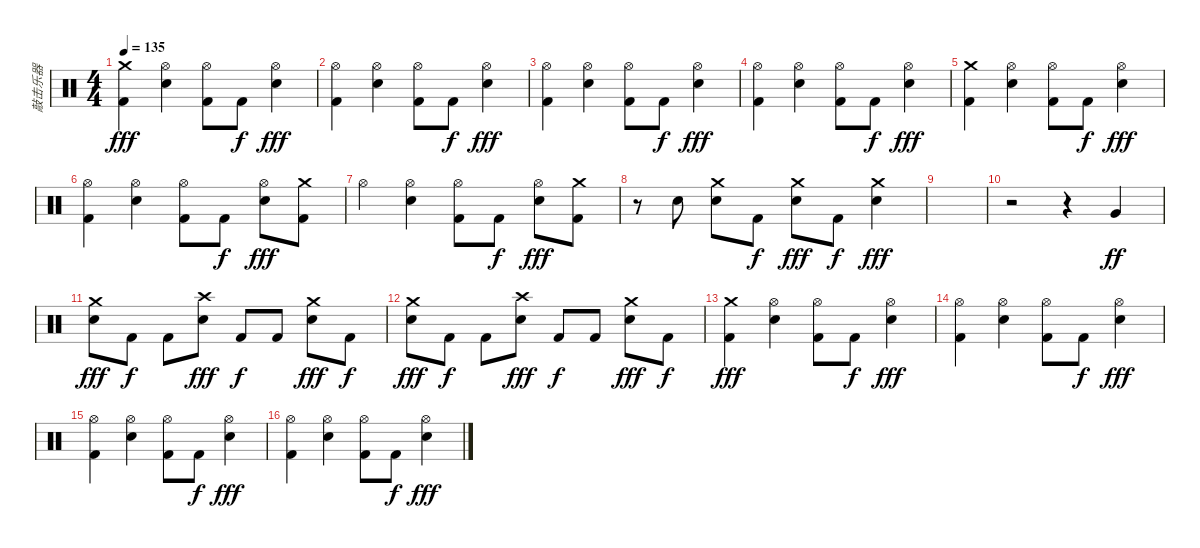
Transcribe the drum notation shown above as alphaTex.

\track ("敲击乐器" "敲击乐器") {instrument percussion}
\staff {score}
\articulation defaults
\ts (4 4)
\tempo 135
\clef neutral
\ks c
("Crash medium (hit)" "Kick (hit) 2").4{dy fff} ("Hi-Hat (open)" "Electric Snare (hit)").4 ("Hi-Hat (open)" "Kick (hit) 2").8 "Kick (hit) 2".8{dy f} ("Hi-Hat (open)" "Electric Snare (hit)").4{dy fff} |
("Hi-Hat (open)" "Kick (hit) 2").4 ("Hi-Hat (open)" "Electric Snare (hit)").4 ("Hi-Hat (open)" "Kick (hit) 2").8 "Kick (hit) 2".8{dy f} ("Hi-Hat (open)" "Electric Snare (hit)").4{dy fff} |
("Hi-Hat (open)" "Kick (hit) 2").4 ("Hi-Hat (open)" "Electric Snare (hit)").4 ("Hi-Hat (open)" "Kick (hit) 2").8 "Kick (hit) 2".8{dy f} ("Hi-Hat (open)" "Electric Snare (hit)").4{dy fff} |
("Hi-Hat (open)" "Kick (hit) 2").4 ("Hi-Hat (open)" "Electric Snare (hit)").4 ("Hi-Hat (open)" "Kick (hit) 2").8 "Kick (hit) 2".8{dy f} ("Hi-Hat (open)" "Electric Snare (hit)").4{dy fff} |
("Crash medium (hit)" "Kick (hit) 2").4 ("Hi-Hat (open)" "Electric Snare (hit)").4 ("Hi-Hat (open)" "Kick (hit) 2").8 "Kick (hit) 2".8{dy f} ("Hi-Hat (open)" "Electric Snare (hit)").4{dy fff} |
("Hi-Hat (open)" "Kick (hit) 2").4 ("Hi-Hat (open)" "Electric Snare (hit)").4 ("Hi-Hat (open)" "Kick (hit) 2").8 "Kick (hit) 2".8{dy f} ("Hi-Hat (open)" "Electric Snare (hit)").8{dy fff} ("Crash medium (hit)" "Kick (hit) 2").8 |
"Hi-Hat (open)".4 ("Hi-Hat (open)" "Electric Snare (hit)").4 ("Hi-Hat (open)" "Kick (hit) 2").8 "Kick (hit) 2".8{dy f} ("Electric Snare (hit)" "Hi-Hat (open)").8{dy fff} ("Crash medium (hit)" "Kick (hit) 2").8 |
r.8 "Electric Snare (hit)".8 ("Electric Snare (hit)" "Crash medium (hit)").8 "Kick (hit) 2".8{dy f} ("Electric Snare (hit)" "Crash medium (hit)").8{dy fff} "Kick (hit) 2".8{dy f} ("Electric Snare (hit)" "Crash medium (hit)").4{dy fff} |
|
r.2 r.4 "Very Low Tom (hit)".4{dy ff} |
("Crash medium (hit)" "Electric Snare (hit)").8{dy fff} "Kick (hit) 2".8{dy f} "Kick (hit) 2".8 ("Electric Snare (hit)" "Crash high (hit)").8{dy fff} "Kick (hit) 2".8{dy f} "Kick (hit) 2".8 ("Electric Snare (hit)" "Crash medium (hit)").8{dy fff} "Kick (hit) 2".8{dy f} |
("Crash medium (hit)" "Electric Snare (hit)").8{dy fff} "Kick (hit) 2".8{dy f} "Kick (hit) 2".8 ("Electric Snare (hit)" "Crash high (hit)").8{dy fff} "Kick (hit) 2".8{dy f} "Kick (hit) 2".8 ("Electric Snare (hit)" "Crash medium (hit)").8{dy fff} "Kick (hit) 2".8{dy f} |
("Crash medium (hit)" "Kick (hit) 2").4{dy fff} ("Hi-Hat (open)" "Electric Snare (hit)").4 ("Hi-Hat (open)" "Kick (hit) 2").8 "Kick (hit) 2".8{dy f} ("Hi-Hat (open)" "Electric Snare (hit)").4{dy fff} |
("Hi-Hat (open)" "Kick (hit) 2").4 ("Hi-Hat (open)" "Electric Snare (hit)").4 ("Hi-Hat (open)" "Kick (hit) 2").8 "Kick (hit) 2".8{dy f} ("Hi-Hat (open)" "Electric Snare (hit)").4{dy fff} |
("Hi-Hat (open)" "Kick (hit) 2").4 ("Hi-Hat (open)" "Electric Snare (hit)").4 ("Hi-Hat (open)" "Kick (hit) 2").8 "Kick (hit) 2".8{dy f} ("Hi-Hat (open)" "Electric Snare (hit)").4{dy fff} |
("Hi-Hat (open)" "Kick (hit) 2").4 ("Hi-Hat (open)" "Electric Snare (hit)").4 ("Hi-Hat (open)" "Kick (hit) 2").8 "Kick (hit) 2".8{dy f} ("Hi-Hat (open)" "Electric Snare (hit)").4{dy fff}
